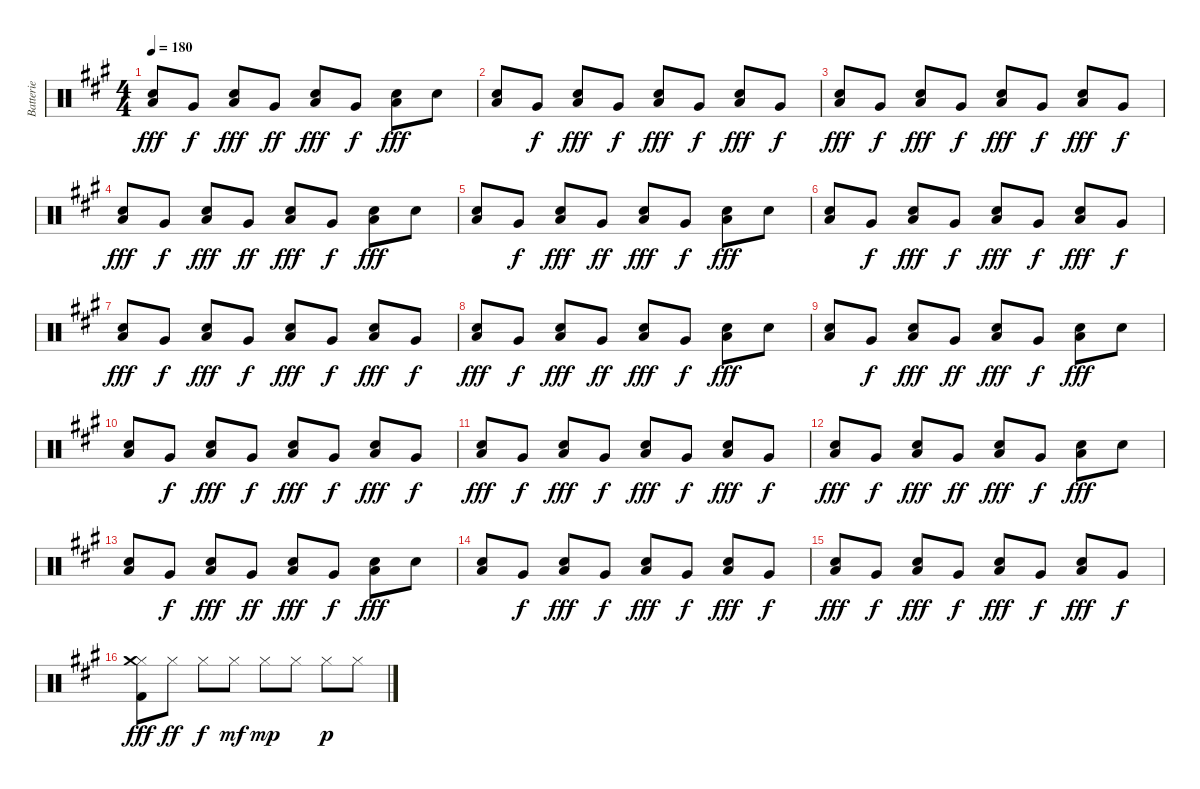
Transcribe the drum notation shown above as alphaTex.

\track ("Batterie" "Batterie") {instrument percussion}
\staff {score}
\articulation defaults
\ts (4 4)
\tempo 180
\clef neutral
\ks a
("Electric Snare (hit)" "Low Floor Tom (hit)").8{dy fff} "Very Low Tom (hit)".8{dy f} ("Electric Snare (hit)" "Low Floor Tom (hit)").8{dy fff} "Very Low Tom (hit)".8{dy ff} ("Electric Snare (hit)" "Low Floor Tom (hit)").8{dy fff} "Very Low Tom (hit)".8{dy f} ("Electric Snare (hit)" "Low Floor Tom (hit)").8{dy fff} "Electric Snare (hit)".8 |
("Electric Snare (hit)" "Low Floor Tom (hit)").8 "Very Low Tom (hit)".8{dy f} ("Electric Snare (hit)" "Low Floor Tom (hit)").8{dy fff} "Very Low Tom (hit)".8{dy f} ("Electric Snare (hit)" "Low Floor Tom (hit)").8{dy fff} "Very Low Tom (hit)".8{dy f} ("Electric Snare (hit)" "Low Floor Tom (hit)").8{dy fff} "Very Low Tom (hit)".8{dy f} |
("Electric Snare (hit)" "Low Floor Tom (hit)").8{dy fff} "Very Low Tom (hit)".8{dy f} ("Electric Snare (hit)" "Low Floor Tom (hit)").8{dy fff} "Very Low Tom (hit)".8{dy f} ("Electric Snare (hit)" "Low Floor Tom (hit)").8{dy fff} "Very Low Tom (hit)".8{dy f} ("Electric Snare (hit)" "Low Floor Tom (hit)").8{dy fff} "Very Low Tom (hit)".8{dy f} |
("Electric Snare (hit)" "Low Floor Tom (hit)").8{dy fff} "Very Low Tom (hit)".8{dy f} ("Electric Snare (hit)" "Low Floor Tom (hit)").8{dy fff} "Very Low Tom (hit)".8{dy ff} ("Electric Snare (hit)" "Low Floor Tom (hit)").8{dy fff} "Very Low Tom (hit)".8{dy f} ("Electric Snare (hit)" "Low Floor Tom (hit)").8{dy fff} "Electric Snare (hit)".8 |
("Electric Snare (hit)" "Low Floor Tom (hit)").8 "Very Low Tom (hit)".8{dy f} ("Electric Snare (hit)" "Low Floor Tom (hit)").8{dy fff} "Very Low Tom (hit)".8{dy ff} ("Electric Snare (hit)" "Low Floor Tom (hit)").8{dy fff} "Very Low Tom (hit)".8{dy f} ("Electric Snare (hit)" "Low Floor Tom (hit)").8{dy fff} "Electric Snare (hit)".8 |
("Electric Snare (hit)" "Low Floor Tom (hit)").8 "Very Low Tom (hit)".8{dy f} ("Electric Snare (hit)" "Low Floor Tom (hit)").8{dy fff} "Very Low Tom (hit)".8{dy f} ("Electric Snare (hit)" "Low Floor Tom (hit)").8{dy fff} "Very Low Tom (hit)".8{dy f} ("Electric Snare (hit)" "Low Floor Tom (hit)").8{dy fff} "Very Low Tom (hit)".8{dy f} |
("Electric Snare (hit)" "Low Floor Tom (hit)").8{dy fff} "Very Low Tom (hit)".8{dy f} ("Electric Snare (hit)" "Low Floor Tom (hit)").8{dy fff} "Very Low Tom (hit)".8{dy f} ("Electric Snare (hit)" "Low Floor Tom (hit)").8{dy fff} "Very Low Tom (hit)".8{dy f} ("Electric Snare (hit)" "Low Floor Tom (hit)").8{dy fff} "Very Low Tom (hit)".8{dy f} |
("Electric Snare (hit)" "Low Floor Tom (hit)").8{dy fff} "Very Low Tom (hit)".8{dy f} ("Electric Snare (hit)" "Low Floor Tom (hit)").8{dy fff} "Very Low Tom (hit)".8{dy ff} ("Electric Snare (hit)" "Low Floor Tom (hit)").8{dy fff} "Very Low Tom (hit)".8{dy f} ("Electric Snare (hit)" "Low Floor Tom (hit)").8{dy fff} "Electric Snare (hit)".8 |
("Electric Snare (hit)" "Low Floor Tom (hit)").8 "Very Low Tom (hit)".8{dy f} ("Electric Snare (hit)" "Low Floor Tom (hit)").8{dy fff} "Very Low Tom (hit)".8{dy ff} ("Electric Snare (hit)" "Low Floor Tom (hit)").8{dy fff} "Very Low Tom (hit)".8{dy f} ("Electric Snare (hit)" "Low Floor Tom (hit)").8{dy fff} "Electric Snare (hit)".8 |
("Electric Snare (hit)" "Low Floor Tom (hit)").8 "Very Low Tom (hit)".8{dy f} ("Electric Snare (hit)" "Low Floor Tom (hit)").8{dy fff} "Very Low Tom (hit)".8{dy f} ("Electric Snare (hit)" "Low Floor Tom (hit)").8{dy fff} "Very Low Tom (hit)".8{dy f} ("Electric Snare (hit)" "Low Floor Tom (hit)").8{dy fff} "Very Low Tom (hit)".8{dy f} |
("Electric Snare (hit)" "Low Floor Tom (hit)").8{dy fff} "Very Low Tom (hit)".8{dy f} ("Electric Snare (hit)" "Low Floor Tom (hit)").8{dy fff} "Very Low Tom (hit)".8{dy f} ("Electric Snare (hit)" "Low Floor Tom (hit)").8{dy fff} "Very Low Tom (hit)".8{dy f} ("Electric Snare (hit)" "Low Floor Tom (hit)").8{dy fff} "Very Low Tom (hit)".8{dy f} |
("Electric Snare (hit)" "Low Floor Tom (hit)").8{dy fff} "Very Low Tom (hit)".8{dy f} ("Electric Snare (hit)" "Low Floor Tom (hit)").8{dy fff} "Very Low Tom (hit)".8{dy ff} ("Electric Snare (hit)" "Low Floor Tom (hit)").8{dy fff} "Very Low Tom (hit)".8{dy f} ("Electric Snare (hit)" "Low Floor Tom (hit)").8{dy fff} "Electric Snare (hit)".8 |
("Electric Snare (hit)" "Low Floor Tom (hit)").8 "Very Low Tom (hit)".8{dy f} ("Electric Snare (hit)" "Low Floor Tom (hit)").8{dy fff} "Very Low Tom (hit)".8{dy ff} ("Electric Snare (hit)" "Low Floor Tom (hit)").8{dy fff} "Very Low Tom (hit)".8{dy f} ("Electric Snare (hit)" "Low Floor Tom (hit)").8{dy fff} "Electric Snare (hit)".8 |
("Electric Snare (hit)" "Low Floor Tom (hit)").8 "Very Low Tom (hit)".8{dy f} ("Electric Snare (hit)" "Low Floor Tom (hit)").8{dy fff} "Very Low Tom (hit)".8{dy f} ("Electric Snare (hit)" "Low Floor Tom (hit)").8{dy fff} "Very Low Tom (hit)".8{dy f} ("Electric Snare (hit)" "Low Floor Tom (hit)").8{dy fff} "Very Low Tom (hit)".8{dy f} |
("Electric Snare (hit)" "Low Floor Tom (hit)").8{dy fff} "Very Low Tom (hit)".8{dy f} ("Electric Snare (hit)" "Low Floor Tom (hit)").8{dy fff} "Very Low Tom (hit)".8{dy f} ("Electric Snare (hit)" "Low Floor Tom (hit)").8{dy fff} "Very Low Tom (hit)".8{dy f} ("Electric Snare (hit)" "Low Floor Tom (hit)").8{dy fff} "Very Low Tom (hit)".8{dy f} |
("Hi-Hat (closed)" "Kick (hit) 2" "Crash medium (hit)").8{dy fff volume 14} "Hi-Hat (closed)".8{dy ff} "Hi-Hat (closed)".8{dy f} "Hi-Hat (closed)".8{dy mf} "Hi-Hat (closed)".8{dy mp} "Hi-Hat (closed)".8 "Hi-Hat (closed)".8{dy p} "Hi-Hat (closed)".8
